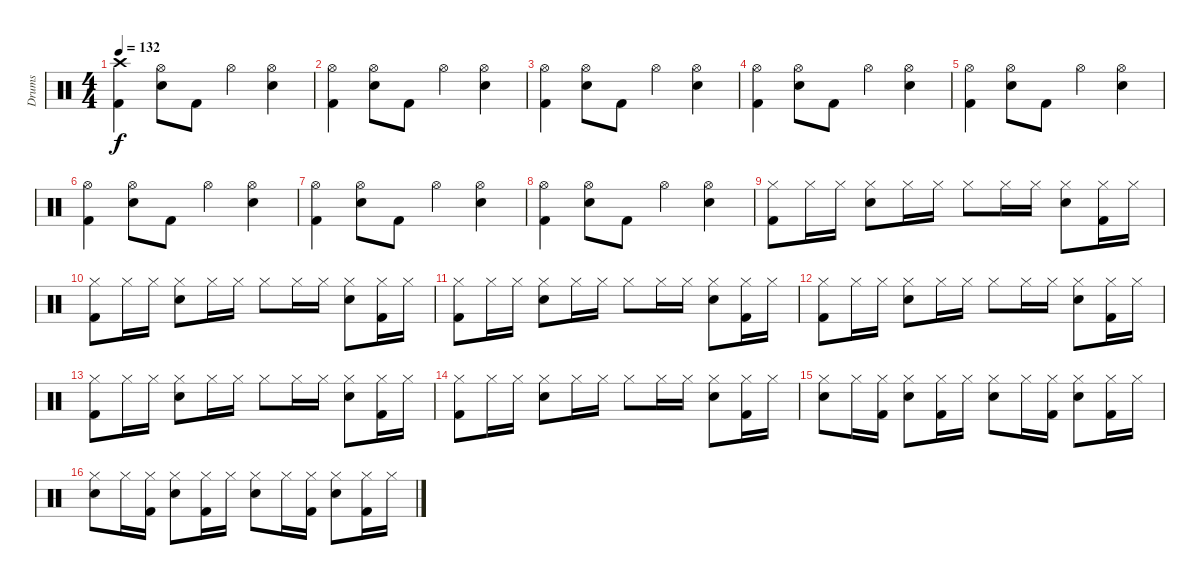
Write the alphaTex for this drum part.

\track ("Drums" "Drums") {instrument percussion}
\staff {score}
\articulation defaults
\ts (4 4)
\tempo 132
\clef neutral
\ks c
("Kick (hit) 2" "Crash high (hit)").4{dy f} ("Snare (hit) 2" "Hi-Hat (open)").8 "Kick (hit) 2".8 "Hi-Hat (open)".4 ("Snare (hit) 2" "Hi-Hat (open)").4 |
("Kick (hit) 2" "Hi-Hat (open)").4 ("Snare (hit) 2" "Hi-Hat (open)").8 "Kick (hit) 2".8 "Hi-Hat (open)".4 ("Snare (hit) 2" "Hi-Hat (open)").4 |
("Kick (hit) 2" "Hi-Hat (open)").4 ("Snare (hit) 2" "Hi-Hat (open)").8 "Kick (hit) 2".8 "Hi-Hat (open)".4 ("Snare (hit) 2" "Hi-Hat (open)").4 |
("Kick (hit) 2" "Hi-Hat (open)").4 ("Snare (hit) 2" "Hi-Hat (open)").8 "Kick (hit) 2".8 "Hi-Hat (open)".4 ("Snare (hit) 2" "Hi-Hat (open)").4 |
("Kick (hit) 2" "Hi-Hat (open)").4 ("Snare (hit) 2" "Hi-Hat (open)").8 "Kick (hit) 2".8 "Hi-Hat (open)".4 ("Snare (hit) 2" "Hi-Hat (open)").4 |
("Kick (hit) 2" "Hi-Hat (open)").4 ("Snare (hit) 2" "Hi-Hat (open)").8 "Kick (hit) 2".8 "Hi-Hat (open)".4 ("Snare (hit) 2" "Hi-Hat (open)").4 |
("Kick (hit) 2" "Hi-Hat (open)").4 ("Snare (hit) 2" "Hi-Hat (open)").8 "Kick (hit) 2".8 "Hi-Hat (open)".4 ("Snare (hit) 2" "Hi-Hat (open)").4 |
("Kick (hit) 2" "Hi-Hat (open)").4 ("Snare (hit) 2" "Hi-Hat (open)").8 "Kick (hit) 2".8 "Hi-Hat (open)".4 ("Snare (hit) 2" "Hi-Hat (open)").4 |
("Kick (hit) 2" "Hi-Hat (closed)").8 "Hi-Hat (closed)".16 "Hi-Hat (closed)".16 ("Snare (hit) 2" "Hi-Hat (closed)").8 "Hi-Hat (closed)".16 "Hi-Hat (closed)".16 "Hi-Hat (closed)".8 "Hi-Hat (closed)".16 "Hi-Hat (closed)".16 ("Snare (hit) 2" "Hi-Hat (closed)").8 ("Kick (hit) 2" "Hi-Hat (closed)").16 "Hi-Hat (closed)".16 |
("Kick (hit) 2" "Hi-Hat (closed)").8 "Hi-Hat (closed)".16 "Hi-Hat (closed)".16 ("Snare (hit) 2" "Hi-Hat (closed)").8 "Hi-Hat (closed)".16 "Hi-Hat (closed)".16 "Hi-Hat (closed)".8 "Hi-Hat (closed)".16 "Hi-Hat (closed)".16 ("Snare (hit) 2" "Hi-Hat (closed)").8 ("Kick (hit) 2" "Hi-Hat (closed)").16 "Hi-Hat (closed)".16 |
("Kick (hit) 2" "Hi-Hat (closed)").8 "Hi-Hat (closed)".16 "Hi-Hat (closed)".16 ("Snare (hit) 2" "Hi-Hat (closed)").8 "Hi-Hat (closed)".16 "Hi-Hat (closed)".16 "Hi-Hat (closed)".8 "Hi-Hat (closed)".16 "Hi-Hat (closed)".16 ("Snare (hit) 2" "Hi-Hat (closed)").8 ("Kick (hit) 2" "Hi-Hat (closed)").16 "Hi-Hat (closed)".16 |
("Kick (hit) 2" "Hi-Hat (closed)").8 "Hi-Hat (closed)".16 "Hi-Hat (closed)".16 ("Snare (hit) 2" "Hi-Hat (closed)").8 "Hi-Hat (closed)".16 "Hi-Hat (closed)".16 "Hi-Hat (closed)".8 "Hi-Hat (closed)".16 "Hi-Hat (closed)".16 ("Snare (hit) 2" "Hi-Hat (closed)").8 ("Kick (hit) 2" "Hi-Hat (closed)").16 "Hi-Hat (closed)".16 |
("Kick (hit) 2" "Hi-Hat (closed)").8 "Hi-Hat (closed)".16 "Hi-Hat (closed)".16 ("Snare (hit) 2" "Hi-Hat (closed)").8 "Hi-Hat (closed)".16 "Hi-Hat (closed)".16 "Hi-Hat (closed)".8 "Hi-Hat (closed)".16 "Hi-Hat (closed)".16 ("Snare (hit) 2" "Hi-Hat (closed)").8 ("Kick (hit) 2" "Hi-Hat (closed)").16 "Hi-Hat (closed)".16 |
("Kick (hit) 2" "Hi-Hat (closed)").8 "Hi-Hat (closed)".16 "Hi-Hat (closed)".16 ("Snare (hit) 2" "Hi-Hat (closed)").8 "Hi-Hat (closed)".16 "Hi-Hat (closed)".16 "Hi-Hat (closed)".8 "Hi-Hat (closed)".16 "Hi-Hat (closed)".16 ("Snare (hit) 2" "Hi-Hat (closed)").8 ("Kick (hit) 2" "Hi-Hat (closed)").16 "Hi-Hat (closed)".16 |
("Snare (hit) 2" "Hi-Hat (closed)").8 "Hi-Hat (closed)".16 ("Kick (hit) 2" "Hi-Hat (closed)").16 ("Snare (hit) 2" "Hi-Hat (closed)").8 ("Kick (hit) 2" "Hi-Hat (closed)").16 "Hi-Hat (closed)".16 ("Snare (hit) 2" "Hi-Hat (closed)").8 "Hi-Hat (closed)".16 ("Kick (hit) 2" "Hi-Hat (closed)").16 ("Snare (hit) 2" "Hi-Hat (closed)").8 ("Kick (hit) 2" "Hi-Hat (closed)").16 "Hi-Hat (closed)".16 |
("Snare (hit) 2" "Hi-Hat (closed)").8 "Hi-Hat (closed)".16 ("Kick (hit) 2" "Hi-Hat (closed)").16 ("Snare (hit) 2" "Hi-Hat (closed)").8 ("Kick (hit) 2" "Hi-Hat (closed)").16 "Hi-Hat (closed)".16 ("Snare (hit) 2" "Hi-Hat (closed)").8 "Hi-Hat (closed)".16 ("Kick (hit) 2" "Hi-Hat (closed)").16 ("Snare (hit) 2" "Hi-Hat (closed)").8 ("Kick (hit) 2" "Hi-Hat (closed)").16 "Hi-Hat (closed)".16
